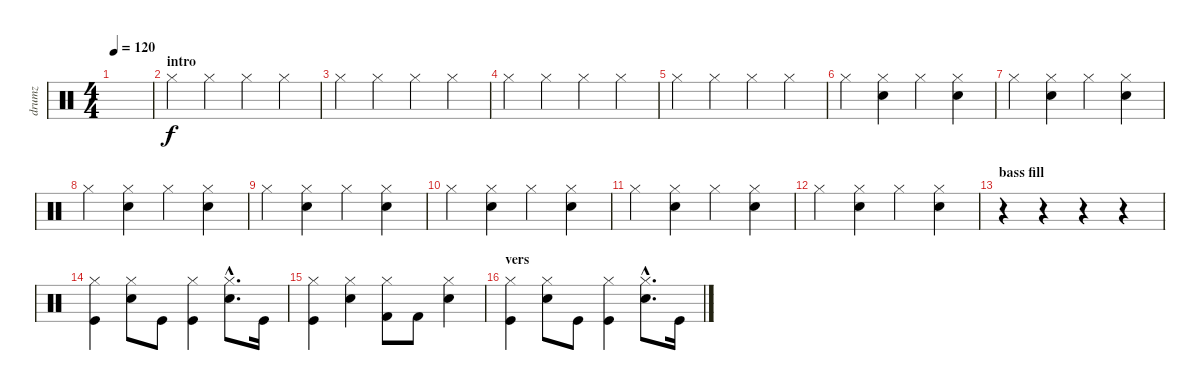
\track ("drumz" "drumz") {instrument percussion}
\staff {score}
\articulation defaults
\ts (4 4)
\tempo 120
\clef neutral
\ks c
|
\section ("" "intro")
"Hi-Hat (closed)".4 "Hi-Hat (closed)".4 "Hi-Hat (closed)".4 "Hi-Hat (closed)".4 |
"Hi-Hat (closed)".4 "Hi-Hat (closed)".4 "Hi-Hat (closed)".4 "Hi-Hat (closed)".4 |
"Hi-Hat (closed)".4 "Hi-Hat (closed)".4 "Hi-Hat (closed)".4 "Hi-Hat (closed)".4 |
"Hi-Hat (closed)".4 "Hi-Hat (closed)".4 "Hi-Hat (closed)".4 "Hi-Hat (closed)".4 |
"Hi-Hat (closed)".4 ("Snare (hit) 2" "Hi-Hat (closed)").4 "Hi-Hat (closed)".4 ("Snare (hit) 2" "Hi-Hat (closed)").4 |
"Hi-Hat (closed)".4 ("Snare (hit) 2" "Hi-Hat (closed)").4 "Hi-Hat (closed)".4 ("Snare (hit) 2" "Hi-Hat (closed)").4 |
"Hi-Hat (closed)".4 ("Snare (hit) 2" "Hi-Hat (closed)").4 "Hi-Hat (closed)".4 ("Snare (hit) 2" "Hi-Hat (closed)").4 |
"Hi-Hat (closed)".4 ("Snare (hit) 2" "Hi-Hat (closed)").4 "Hi-Hat (closed)".4 ("Snare (hit) 2" "Hi-Hat (closed)").4 |
"Hi-Hat (closed)".4 ("Snare (hit) 2" "Hi-Hat (closed)").4 "Hi-Hat (closed)".4 ("Snare (hit) 2" "Hi-Hat (closed)").4 |
"Hi-Hat (closed)".4 ("Snare (hit) 2" "Hi-Hat (closed)").4 "Hi-Hat (closed)".4 ("Snare (hit) 2" "Hi-Hat (closed)").4 |
"Hi-Hat (closed)".4 ("Snare (hit) 2" "Hi-Hat (closed)").4 "Hi-Hat (closed)".4 ("Snare (hit) 2" "Hi-Hat (closed)").4 |
\section ("" "bass fill")
r.4 r.4 r.4 r.4 |
("Kick (hit)" "Hi-Hat (closed)").4 ("Snare (hit) 2" "Hi-Hat (closed)").8 "Kick (hit)".8 ("Kick (hit)" "Hi-Hat (closed)").4 ("Snare (hit) 2"{hac} "Hi-Hat (closed)"{hac}).8{d} "Kick (hit)".16 |
("Kick (hit)" "Hi-Hat (closed)").4 ("Snare (hit) 2" "Hi-Hat (closed)").4 ("Kick (hit) 2" "Hi-Hat (closed)").8 "Kick (hit) 2".8 ("Snare (hit) 2" "Hi-Hat (closed)").4 |
\section ("" "vers")
("Kick (hit)" "Hi-Hat (closed)").4 ("Snare (hit) 2" "Hi-Hat (closed)").8 "Kick (hit)".8 ("Kick (hit)" "Hi-Hat (closed)").4 ("Snare (hit) 2"{hac} "Hi-Hat (closed)"{hac}).8{d} "Kick (hit)".16
